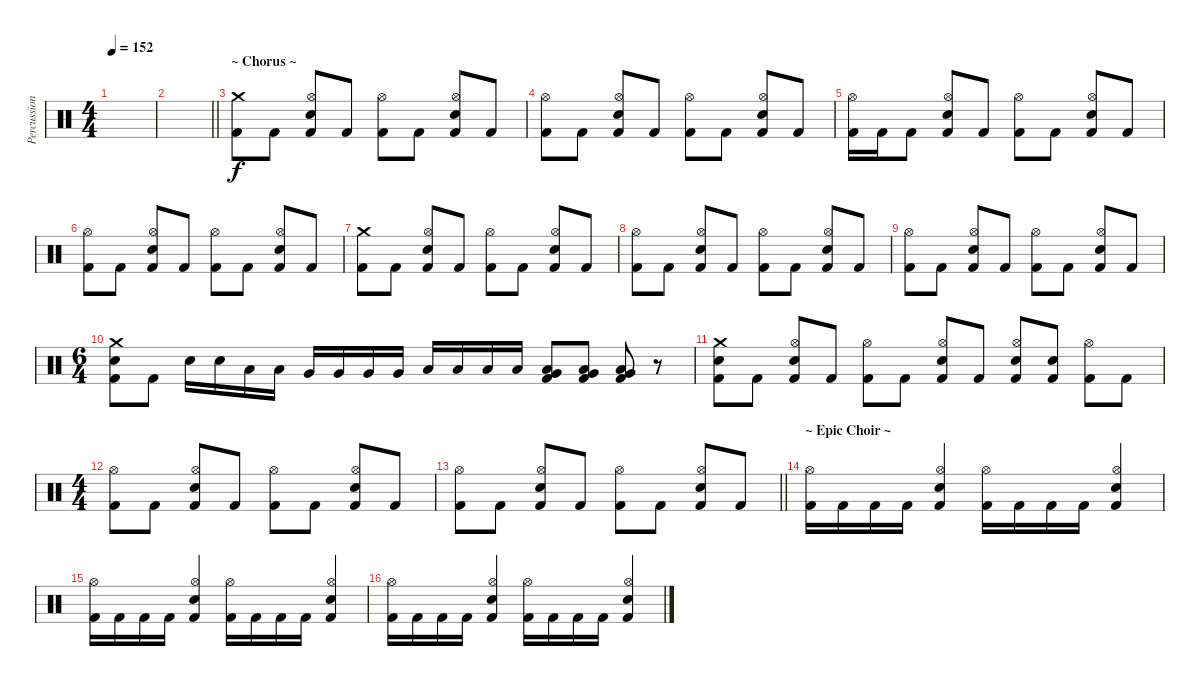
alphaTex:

\track ("Percussion" "Percussion") {instrument percussion}
\staff {score}
\articulation defaults
\ts (4 4)
\tempo 152
\clef neutral
\ks c
|
\barLineRight lightlight
|
\section ("" "~ Chorus ~")
("Crash medium (hit)" "Kick (hit) 2").8 "Kick (hit) 2".8 ("Hi-Hat (open)" "Electric Snare (hit)" "Kick (hit) 2").8 "Kick (hit) 2".8 ("Hi-Hat (open)" "Kick (hit) 2").8 "Kick (hit) 2".8 ("Hi-Hat (open)" "Electric Snare (hit)" "Kick (hit) 2").8 "Kick (hit) 2".8 |
("Hi-Hat (open)" "Kick (hit) 2").8 "Kick (hit) 2".8 ("Hi-Hat (open)" "Electric Snare (hit)" "Kick (hit) 2").8 "Kick (hit) 2".8 ("Hi-Hat (open)" "Kick (hit) 2").8 "Kick (hit) 2".8 ("Hi-Hat (open)" "Electric Snare (hit)" "Kick (hit) 2").8 "Kick (hit) 2".8 |
("Hi-Hat (open)" "Kick (hit) 2").16 "Kick (hit) 2".16 "Kick (hit) 2".8 ("Hi-Hat (open)" "Electric Snare (hit)" "Kick (hit) 2").8 "Kick (hit) 2".8 ("Hi-Hat (open)" "Kick (hit) 2").8 "Kick (hit) 2".8 ("Hi-Hat (open)" "Electric Snare (hit)" "Kick (hit) 2").8 "Kick (hit) 2".8 |
("Hi-Hat (open)" "Kick (hit) 2").8 "Kick (hit) 2".8 ("Hi-Hat (open)" "Electric Snare (hit)" "Kick (hit) 2").8 "Kick (hit) 2".8 ("Hi-Hat (open)" "Kick (hit) 2").8 "Kick (hit) 2".8 ("Hi-Hat (open)" "Electric Snare (hit)" "Kick (hit) 2").8 "Kick (hit) 2".8 |
("Crash medium (hit)" "Kick (hit) 2").8 "Kick (hit) 2".8 ("Hi-Hat (open)" "Electric Snare (hit)" "Kick (hit) 2").8 "Kick (hit) 2".8 ("Hi-Hat (open)" "Kick (hit) 2").8 "Kick (hit) 2".8 ("Hi-Hat (open)" "Electric Snare (hit)" "Kick (hit) 2").8 "Kick (hit) 2".8 |
("Hi-Hat (open)" "Kick (hit) 2").8 "Kick (hit) 2".8 ("Hi-Hat (open)" "Electric Snare (hit)" "Kick (hit) 2").8 "Kick (hit) 2".8 ("Hi-Hat (open)" "Kick (hit) 2").8 "Kick (hit) 2".8 ("Hi-Hat (open)" "Electric Snare (hit)" "Kick (hit) 2").8 "Kick (hit) 2".8 |
("Hi-Hat (open)" "Kick (hit) 2").8 "Kick (hit) 2".8 ("Hi-Hat (open)" "Electric Snare (hit)" "Kick (hit) 2").8 "Kick (hit) 2".8 ("Hi-Hat (open)" "Kick (hit) 2").8 "Kick (hit) 2".8 ("Hi-Hat (open)" "Electric Snare (hit)" "Kick (hit) 2").8 "Kick (hit) 2".8 |
\ts (6 4)
("Crash medium (hit)" "Electric Snare (hit)" "Kick (hit) 2").8 "Kick (hit) 2".8 "Electric Snare (hit)".16 "Electric Snare (hit)".16 "Low Tom (hit)".16 "Low Tom (hit)".16 "Very Low Tom (hit)".16 "Very Low Tom (hit)".16 "Very Low Tom (hit)".16 "Very Low Tom (hit)".16 "Low Floor Tom (hit)".16 "Low Floor Tom (hit)".16 "Low Floor Tom (hit)".16 "Low Floor Tom (hit)".16 ("Low Floor Tom (hit)" "Very Low Tom (hit)" "Kick (hit) 2").8 ("Low Floor Tom (hit)" "Very Low Tom (hit)" "Kick (hit) 2").8 ("Very Low Tom (hit)" "Low Floor Tom (hit)" "Kick (hit) 2").8 r.8 |
("Crash medium (hit)" "Electric Snare (hit)" "Kick (hit) 2").8 "Kick (hit) 2".8 ("Hi-Hat (open)" "Electric Snare (hit)" "Kick (hit) 2").8 "Kick (hit) 2".8 ("Hi-Hat (open)" "Kick (hit) 2").8 "Kick (hit) 2".8 ("Hi-Hat (open)" "Electric Snare (hit)" "Kick (hit) 2").8 "Kick (hit) 2".8 ("Hi-Hat (open)" "Electric Snare (hit)" "Kick (hit) 2").8 ("Electric Snare (hit)" "Kick (hit) 2").8 ("Hi-Hat (open)" "Kick (hit) 2").8 "Kick (hit) 2".8 |
\ts (4 4)
("Hi-Hat (open)" "Kick (hit) 2").8 "Kick (hit) 2".8 ("Hi-Hat (open)" "Electric Snare (hit)" "Kick (hit) 2").8 "Kick (hit) 2".8 ("Hi-Hat (open)" "Kick (hit) 2").8 "Kick (hit) 2".8 ("Hi-Hat (open)" "Electric Snare (hit)" "Kick (hit) 2").8 "Kick (hit) 2".8 |
\barLineRight lightlight
("Hi-Hat (open)" "Kick (hit) 2").8 "Kick (hit) 2".8 ("Hi-Hat (open)" "Electric Snare (hit)" "Kick (hit) 2").8 "Kick (hit) 2".8 ("Hi-Hat (open)" "Kick (hit) 2").8 "Kick (hit) 2".8 ("Hi-Hat (open)" "Electric Snare (hit)" "Kick (hit) 2").8 "Kick (hit) 2".8 |
\section ("" "~ Epic Choir ~")
("Hi-Hat (open)" "Kick (hit) 2").16 "Kick (hit) 2".16 "Kick (hit) 2".16 "Kick (hit) 2".16 ("Hi-Hat (open)" "Electric Snare (hit)" "Kick (hit) 2").4 ("Hi-Hat (open)" "Kick (hit) 2").16 "Kick (hit) 2".16 "Kick (hit) 2".16 "Kick (hit) 2".16 ("Hi-Hat (open)" "Electric Snare (hit)" "Kick (hit) 2").4 |
("Hi-Hat (open)" "Kick (hit) 2").16 "Kick (hit) 2".16 "Kick (hit) 2".16 "Kick (hit) 2".16 ("Hi-Hat (open)" "Electric Snare (hit)" "Kick (hit) 2").4 ("Hi-Hat (open)" "Kick (hit) 2").16 "Kick (hit) 2".16 "Kick (hit) 2".16 "Kick (hit) 2".16 ("Hi-Hat (open)" "Electric Snare (hit)" "Kick (hit) 2").4 |
("Hi-Hat (open)" "Kick (hit) 2").16 "Kick (hit) 2".16 "Kick (hit) 2".16 "Kick (hit) 2".16 ("Hi-Hat (open)" "Electric Snare (hit)" "Kick (hit) 2").4 ("Hi-Hat (open)" "Kick (hit) 2").16 "Kick (hit) 2".16 "Kick (hit) 2".16 "Kick (hit) 2".16 ("Hi-Hat (open)" "Electric Snare (hit)" "Kick (hit) 2").4
